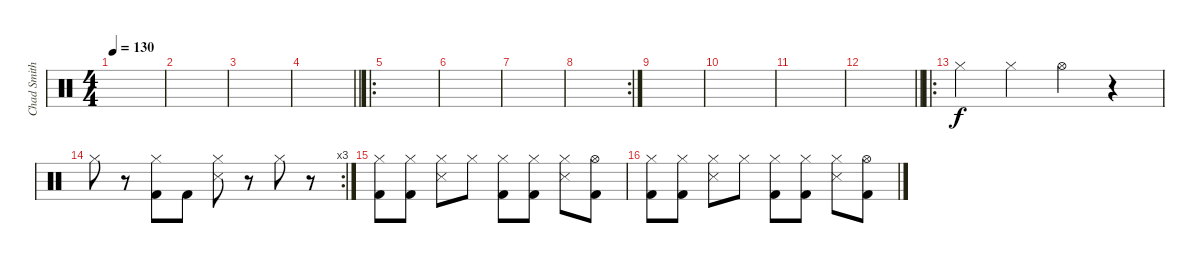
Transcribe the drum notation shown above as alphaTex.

\track ("Chad Smith" "Chad Smith") {instrument percussion}
\staff {score}
\articulation defaults
\ts (4 4)
\tempo 130
\clef neutral
\ks c
|
|
|
\barLineRight lightlight
|
\ro
|
|
|
\rc 2
|
|
|
|
\barLineRight lightlight
|
\ro "Hi-Hat (closed)".4 "Hi-Hat (closed)".4 "Hi-Hat (open)".4
r.4 |
\rc 3 "Hi-Hat (closed)".8
r.8 ("Hi-Hat (closed)" "Kick (hit) 2").8 "Kick (hit) 2".8 ("Hi-Hat (closed)" "Snare (side stick) 3").8 r.8 "Hi-Hat (closed)".8 r.8 |
("Hi-Hat (closed)" "Kick (hit) 2").8 ("Hi-Hat (closed)" "Kick (hit) 2").8 ("Hi-Hat (closed)" "Snare (side stick) 3").8 "Hi-Hat (closed)".8 ("Hi-Hat (closed)" "Kick (hit) 2").8 ("Hi-Hat (closed)" "Kick (hit) 2").8 ("Hi-Hat (closed)" "Snare (side stick) 3").8 ("Hi-Hat (open)" "Kick (hit) 2").8 |
("Hi-Hat (closed)" "Kick (hit) 2").8 ("Hi-Hat (closed)" "Kick (hit) 2").8 ("Hi-Hat (closed)" "Snare (side stick) 3").8 "Hi-Hat (closed)".8 ("Hi-Hat (closed)" "Kick (hit) 2").8 ("Hi-Hat (closed)" "Kick (hit) 2").8 ("Hi-Hat (closed)" "Snare (side stick) 3").8 ("Hi-Hat (open)" "Kick (hit) 2").8
